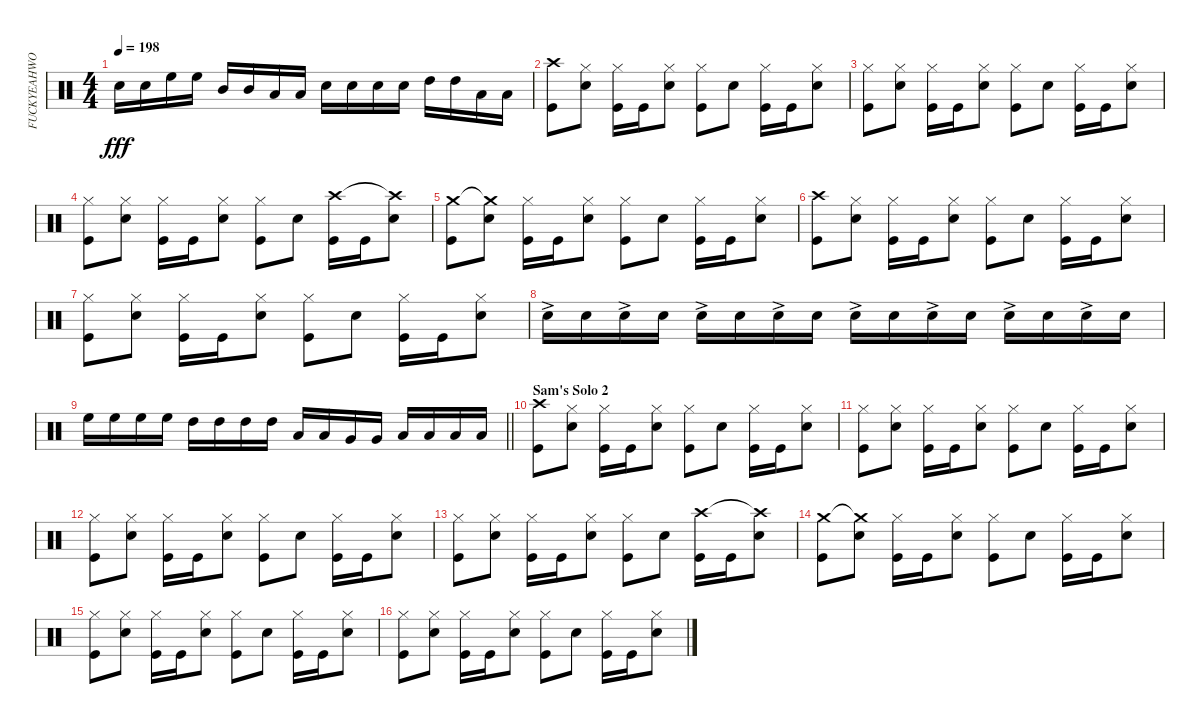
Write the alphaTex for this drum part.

\track ("FUCKYEAHWOOTDAVEMACKINTOSH!(Percussion)" "FUCKYEAHWO") {instrument percussion}
\staff {score}
\articulation defaults
\ts (4 4)
\tempo 198
\clef neutral
\ks c "Snare (hit) 2".16{dy fff} "Snare (hit) 2".16 "High Floor Tom (hit)".16 "High Floor Tom (hit)".16 "Mid Tom (hit)".16 "Mid Tom (hit)".16 "Low Tom (hit)".16 "Low Tom (hit)".16 "Snare (hit) 2".16 "Snare (hit) 2".16 "Snare (hit) 2".16 "Snare (hit) 2".16 "High Tom (hit)".16 "High Tom (hit)".16 "Low Tom (hit)".16 "Low Tom (hit)".16
|
("Kick (hit)" "Crash high (hit)").8 ("Snare (hit) 2" "Hi-Hat (closed)").8 ("Kick (hit)" "Hi-Hat (closed)").16 "Kick (hit)".16 ("Snare (hit) 2" "Hi-Hat (closed)").8 ("Kick (hit)" "Hi-Hat (closed)").8 "Snare (hit) 2".8 ("Kick (hit)" "Hi-Hat (closed)").16 "Kick (hit)".16 ("Snare (hit) 2" "Hi-Hat (closed)").8 |
("Kick (hit)" "Hi-Hat (closed)").8 ("Snare (hit) 2" "Hi-Hat (closed)").8 ("Kick (hit)" "Hi-Hat (closed)").16 "Kick (hit)".16 ("Snare (hit) 2" "Hi-Hat (closed)").8 ("Kick (hit)" "Hi-Hat (closed)").8 "Snare (hit) 2".8 ("Kick (hit)" "Hi-Hat (closed)").16 "Kick (hit)".16 ("Snare (hit) 2" "Hi-Hat (closed)").8 |
("Kick (hit)" "Hi-Hat (closed)").8 ("Snare (hit) 2" "Hi-Hat (closed)").8 ("Kick (hit)" "Hi-Hat (closed)").16 "Kick (hit)".16 ("Snare (hit) 2" "Hi-Hat (closed)").8 ("Kick (hit)" "Hi-Hat (closed)").8 "Snare (hit) 2".8 ("Kick (hit)" "Crash high (hit)").16 "Kick (hit)".16 ("Snare (hit) 2" "Crash high (hit)"{t}).8 |
("Kick (hit)" "Crash medium (hit)").8 ("Snare (hit) 2" "Crash medium (hit)"{t}).8 ("Kick (hit)" "Hi-Hat (closed)").16 "Kick (hit)".16 ("Snare (hit) 2" "Hi-Hat (closed)").8 ("Kick (hit)" "Hi-Hat (closed)").8 "Snare (hit) 2".8 ("Kick (hit)" "Hi-Hat (closed)").16 "Kick (hit)".16 ("Snare (hit) 2" "Hi-Hat (closed)").8 |
("Kick (hit)" "Crash high (hit)").8 ("Snare (hit) 2" "Hi-Hat (closed)").8 ("Kick (hit)" "Hi-Hat (closed)").16 "Kick (hit)".16 ("Snare (hit) 2" "Hi-Hat (closed)").8 ("Kick (hit)" "Hi-Hat (closed)").8 "Snare (hit) 2".8 ("Kick (hit)" "Hi-Hat (closed)").16 "Kick (hit)".16 ("Snare (hit) 2" "Hi-Hat (closed)").8 |
("Kick (hit)" "Hi-Hat (closed)").8 ("Snare (hit) 2" "Hi-Hat (closed)").8 ("Kick (hit)" "Hi-Hat (closed)").16 "Kick (hit)".16 ("Snare (hit) 2" "Hi-Hat (closed)").8 ("Kick (hit)" "Hi-Hat (closed)").8 "Snare (hit) 2".8 ("Kick (hit)" "Hi-Hat (closed)").16 "Kick (hit)".16 ("Snare (hit) 2" "Hi-Hat (closed)").8 |
"Snare (hit) 2"{ac}.16 "Snare (hit) 2".16 "Snare (hit) 2"{ac}.16 "Snare (hit) 2".16 "Snare (hit) 2"{ac}.16 "Snare (hit) 2".16 "Snare (hit) 2"{ac}.16 "Snare (hit) 2".16 "Snare (hit) 2"{ac}.16 "Snare (hit) 2".16 "Snare (hit) 2"{ac}.16 "Snare (hit) 2".16 "Snare (hit) 2"{ac}.16 "Snare (hit) 2".16 "Snare (hit) 2"{ac}.16 "Snare (hit) 2".16 |
\barLineRight lightlight "High Floor Tom (hit)".16 "High Floor Tom (hit)".16 "High Floor Tom (hit)".16 "High Floor Tom (hit)".16 "High Tom (hit)".16 "High Tom (hit)".16 "High Tom (hit)".16 "High Tom (hit)".16 "Low Tom (hit)".16 "Low Tom (hit)".16 "Very Low Tom (hit)".16 "Very Low Tom (hit)".16 "Low Floor Tom (hit)".16 "Low Floor Tom (hit)".16 "Low Floor Tom (hit)".16 "Low Floor Tom (hit)".16
|
\section ("" "Sam's Solo 2")
("Kick (hit)" "Crash high (hit)").8 ("Snare (hit) 2" "Hi-Hat (closed)").8 ("Kick (hit)" "Hi-Hat (closed)").16 "Kick (hit)".16 ("Snare (hit) 2" "Hi-Hat (closed)").8 ("Kick (hit)" "Hi-Hat (closed)").8 "Snare (hit) 2".8 ("Kick (hit)" "Hi-Hat (closed)").16 "Kick (hit)".16 ("Snare (hit) 2" "Hi-Hat (closed)").8 |
("Kick (hit)" "Hi-Hat (closed)").8 ("Snare (hit) 2" "Hi-Hat (closed)").8 ("Kick (hit)" "Hi-Hat (closed)").16 "Kick (hit)".16 ("Snare (hit) 2" "Hi-Hat (closed)").8 ("Kick (hit)" "Hi-Hat (closed)").8 "Snare (hit) 2".8 ("Kick (hit)" "Hi-Hat (closed)").16 "Kick (hit)".16 ("Snare (hit) 2" "Hi-Hat (closed)").8 |
("Kick (hit)" "Hi-Hat (closed)").8 ("Snare (hit) 2" "Hi-Hat (closed)").8 ("Kick (hit)" "Hi-Hat (closed)").16 "Kick (hit)".16 ("Snare (hit) 2" "Hi-Hat (closed)").8 ("Kick (hit)" "Hi-Hat (closed)").8 "Snare (hit) 2".8 ("Kick (hit)" "Hi-Hat (closed)").16 "Kick (hit)".16 ("Snare (hit) 2" "Hi-Hat (closed)").8 |
("Kick (hit)" "Hi-Hat (closed)").8 ("Snare (hit) 2" "Hi-Hat (closed)").8 ("Kick (hit)" "Hi-Hat (closed)").16 "Kick (hit)".16 ("Snare (hit) 2" "Hi-Hat (closed)").8 ("Kick (hit)" "Hi-Hat (closed)").8 "Snare (hit) 2".8 ("Kick (hit)" "Crash high (hit)").16 "Kick (hit)".16 ("Snare (hit) 2" "Crash high (hit)"{t}).8 |
("Kick (hit)" "Crash medium (hit)").8 ("Snare (hit) 2" "Crash medium (hit)"{t}).8 ("Kick (hit)" "Hi-Hat (closed)").16 "Kick (hit)".16 ("Snare (hit) 2" "Hi-Hat (closed)").8 ("Kick (hit)" "Hi-Hat (closed)").8 "Snare (hit) 2".8 ("Kick (hit)" "Hi-Hat (closed)").16 "Kick (hit)".16 ("Snare (hit) 2" "Hi-Hat (closed)").8 |
("Kick (hit)" "Hi-Hat (closed)").8 ("Snare (hit) 2" "Hi-Hat (closed)").8 ("Kick (hit)" "Hi-Hat (closed)").16 "Kick (hit)".16 ("Snare (hit) 2" "Hi-Hat (closed)").8 ("Kick (hit)" "Hi-Hat (closed)").8 "Snare (hit) 2".8 ("Kick (hit)" "Hi-Hat (closed)").16 "Kick (hit)".16 ("Snare (hit) 2" "Hi-Hat (closed)").8 |
("Kick (hit)" "Hi-Hat (closed)").8 ("Snare (hit) 2" "Hi-Hat (closed)").8 ("Kick (hit)" "Hi-Hat (closed)").16 "Kick (hit)".16 ("Snare (hit) 2" "Hi-Hat (closed)").8 ("Kick (hit)" "Hi-Hat (closed)").8 "Snare (hit) 2".8 ("Kick (hit)" "Hi-Hat (closed)").16 "Kick (hit)".16 ("Snare (hit) 2" "Hi-Hat (closed)").8
